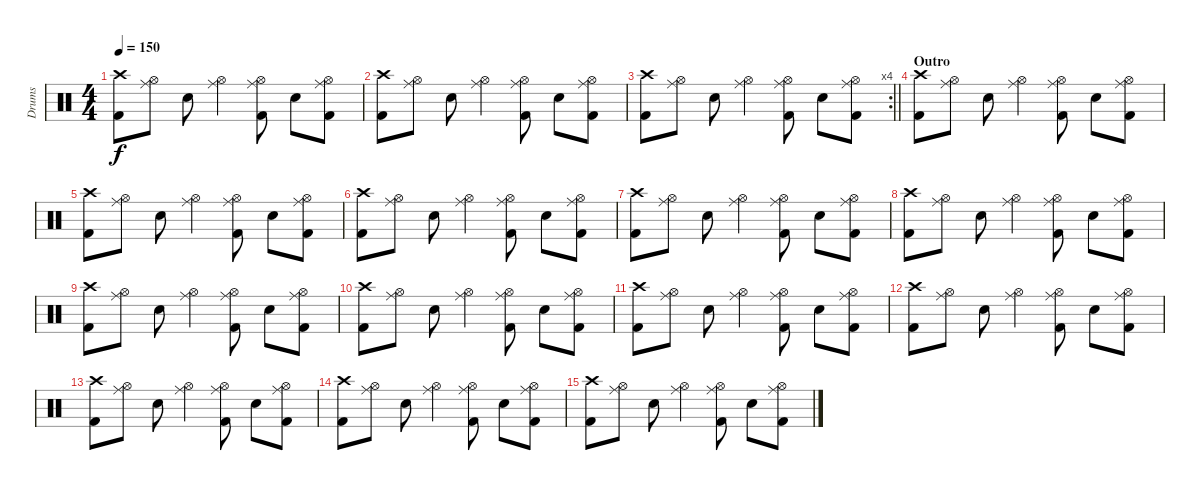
\track ("Drums" "Drums") {instrument percussion}
\staff {score}
\articulation defaults
\ts (4 4)
\tempo 150
\clef neutral
\ks c
("Crash high (hit)" "Kick (hit) 2").8{dy f} ("Ride (middle)" "Hi-Hat (open)").8 "Electric Snare (hit)".8 ("Ride (middle)" "Hi-Hat (open)").4 ("Ride (middle)" "Hi-Hat (open)" "Kick (hit) 2").8 "Electric Snare (hit)".8 ("Ride (middle)" "Hi-Hat (open)" "Kick (hit) 2").8 |
("Crash high (hit)" "Kick (hit) 2").8 ("Ride (middle)" "Hi-Hat (open)").8 "Electric Snare (hit)".8 ("Ride (middle)" "Hi-Hat (open)").4 ("Ride (middle)" "Hi-Hat (open)" "Kick (hit) 2").8 "Electric Snare (hit)".8 ("Ride (middle)" "Hi-Hat (open)" "Kick (hit) 2").8 |
\rc 4
\barLineRight lightlight
("Crash high (hit)" "Kick (hit) 2").8 ("Ride (middle)" "Hi-Hat (open)").8 "Electric Snare (hit)".8 ("Ride (middle)" "Hi-Hat (open)").4 ("Ride (middle)" "Hi-Hat (open)" "Kick (hit) 2").8 "Electric Snare (hit)".8 ("Ride (middle)" "Hi-Hat (open)" "Kick (hit) 2").8 |
\section ("" "Outro")
("Crash high (hit)" "Kick (hit) 2").8{volume 10} ("Ride (middle)" "Hi-Hat (open)").8 "Electric Snare (hit)".8 ("Ride (middle)" "Hi-Hat (open)").4 ("Ride (middle)" "Hi-Hat (open)" "Kick (hit) 2").8 "Electric Snare (hit)".8 ("Ride (middle)" "Hi-Hat (open)" "Kick (hit) 2").8 |
("Crash high (hit)" "Kick (hit) 2").8 ("Ride (middle)" "Hi-Hat (open)").8 "Electric Snare (hit)".8 ("Ride (middle)" "Hi-Hat (open)").4 ("Ride (middle)" "Hi-Hat (open)" "Kick (hit) 2").8 "Electric Snare (hit)".8 ("Ride (middle)" "Hi-Hat (open)" "Kick (hit) 2").8 |
("Crash high (hit)" "Kick (hit) 2").8{volume 8} ("Ride (middle)" "Hi-Hat (open)").8 "Electric Snare (hit)".8 ("Ride (middle)" "Hi-Hat (open)").4 ("Ride (middle)" "Hi-Hat (open)" "Kick (hit) 2").8 "Electric Snare (hit)".8 ("Ride (middle)" "Hi-Hat (open)" "Kick (hit) 2").8 |
("Crash high (hit)" "Kick (hit) 2").8 ("Ride (middle)" "Hi-Hat (open)").8 "Electric Snare (hit)".8 ("Ride (middle)" "Hi-Hat (open)").4 ("Ride (middle)" "Hi-Hat (open)" "Kick (hit) 2").8 "Electric Snare (hit)".8 ("Ride (middle)" "Hi-Hat (open)" "Kick (hit) 2").8 |
("Crash high (hit)" "Kick (hit) 2").8{volume 6} ("Ride (middle)" "Hi-Hat (open)").8 "Electric Snare (hit)".8 ("Ride (middle)" "Hi-Hat (open)").4 ("Ride (middle)" "Hi-Hat (open)" "Kick (hit) 2").8 "Electric Snare (hit)".8 ("Ride (middle)" "Hi-Hat (open)" "Kick (hit) 2").8 |
("Crash high (hit)" "Kick (hit) 2").8 ("Ride (middle)" "Hi-Hat (open)").8 "Electric Snare (hit)".8 ("Ride (middle)" "Hi-Hat (open)").4 ("Ride (middle)" "Hi-Hat (open)" "Kick (hit) 2").8 "Electric Snare (hit)".8 ("Ride (middle)" "Hi-Hat (open)" "Kick (hit) 2").8 |
("Crash high (hit)" "Kick (hit) 2").8{volume 4} ("Ride (middle)" "Hi-Hat (open)").8 "Electric Snare (hit)".8 ("Ride (middle)" "Hi-Hat (open)").4 ("Ride (middle)" "Hi-Hat (open)" "Kick (hit) 2").8 "Electric Snare (hit)".8 ("Ride (middle)" "Hi-Hat (open)" "Kick (hit) 2").8 |
("Crash high (hit)" "Kick (hit) 2").8 ("Ride (middle)" "Hi-Hat (open)").8 "Electric Snare (hit)".8 ("Ride (middle)" "Hi-Hat (open)").4 ("Ride (middle)" "Hi-Hat (open)" "Kick (hit) 2").8 "Electric Snare (hit)".8 ("Ride (middle)" "Hi-Hat (open)" "Kick (hit) 2").8 |
("Crash high (hit)" "Kick (hit) 2").8{volume 2} ("Ride (middle)" "Hi-Hat (open)").8 "Electric Snare (hit)".8 ("Ride (middle)" "Hi-Hat (open)").4 ("Ride (middle)" "Hi-Hat (open)" "Kick (hit) 2").8 "Electric Snare (hit)".8 ("Ride (middle)" "Hi-Hat (open)" "Kick (hit) 2").8 |
("Crash high (hit)" "Kick (hit) 2").8 ("Ride (middle)" "Hi-Hat (open)").8 "Electric Snare (hit)".8 ("Ride (middle)" "Hi-Hat (open)").4 ("Ride (middle)" "Hi-Hat (open)" "Kick (hit) 2").8 "Electric Snare (hit)".8 ("Ride (middle)" "Hi-Hat (open)" "Kick (hit) 2").8 |
("Crash high (hit)" "Kick (hit) 2").8{volume 0} ("Ride (middle)" "Hi-Hat (open)").8 "Electric Snare (hit)".8 ("Ride (middle)" "Hi-Hat (open)").4 ("Ride (middle)" "Hi-Hat (open)" "Kick (hit) 2").8 "Electric Snare (hit)".8 ("Ride (middle)" "Hi-Hat (open)" "Kick (hit) 2").8 |
("Crash high (hit)" "Kick (hit) 2").8 ("Ride (middle)" "Hi-Hat (open)").8 "Electric Snare (hit)".8 ("Ride (middle)" "Hi-Hat (open)").4 ("Ride (middle)" "Hi-Hat (open)" "Kick (hit) 2").8 "Electric Snare (hit)".8 ("Ride (middle)" "Hi-Hat (open)" "Kick (hit) 2").8
